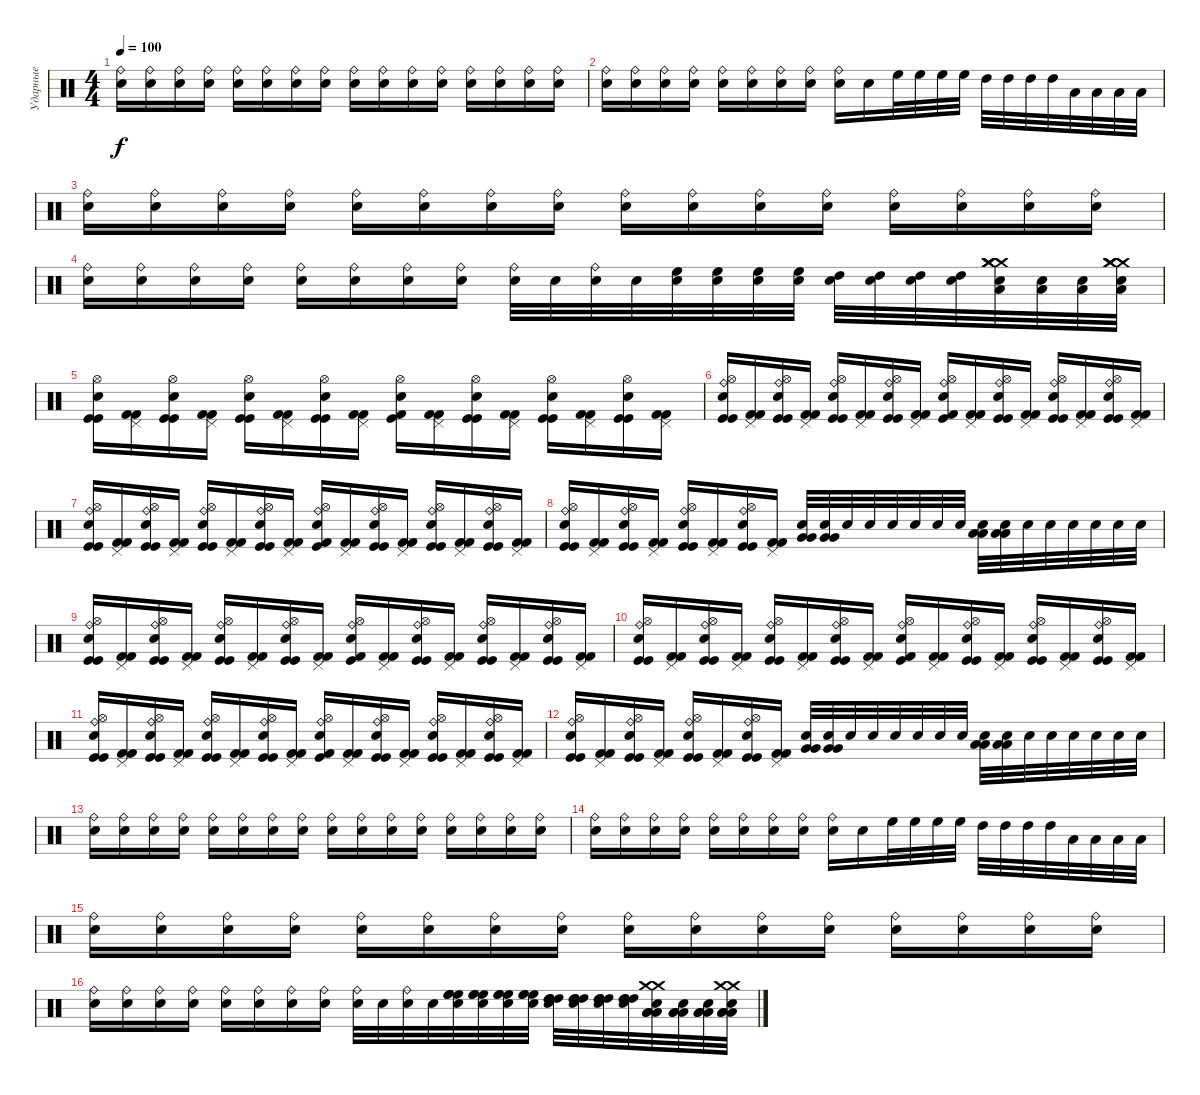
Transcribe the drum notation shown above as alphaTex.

\track ("Ударные" "Ударные") {instrument percussion}
\staff {score}
\articulation defaults
\ts (4 4)
\tempo 100
\clef neutral
\ks c
("Ride (bell)" "Electric Snare (hit)").16{dy f} ("Ride (bell)" "Electric Snare (hit)").16 ("Ride (bell)" "Electric Snare (hit)").16 ("Ride (bell)" "Electric Snare (hit)").16 ("Ride (bell)" "Electric Snare (hit)").16 ("Ride (bell)" "Electric Snare (hit)").16 ("Ride (bell)" "Electric Snare (hit)").16 ("Ride (bell)" "Electric Snare (hit)").16 ("Ride (bell)" "Electric Snare (hit)").16 ("Ride (bell)" "Electric Snare (hit)").16 ("Ride (bell)" "Electric Snare (hit)").16 ("Ride (bell)" "Electric Snare (hit)").16 ("Ride (bell)" "Electric Snare (hit)").16 ("Ride (bell)" "Electric Snare (hit)").16 ("Ride (bell)" "Electric Snare (hit)").16 ("Ride (bell)" "Electric Snare (hit)").16 |
("Ride (bell)" "Electric Snare (hit)").16 ("Ride (bell)" "Electric Snare (hit)").16 ("Ride (bell)" "Electric Snare (hit)").16 ("Ride (bell)" "Electric Snare (hit)").16 ("Ride (bell)" "Electric Snare (hit)").16 ("Ride (bell)" "Electric Snare (hit)").16 ("Ride (bell)" "Electric Snare (hit)").16 ("Ride (bell)" "Electric Snare (hit)").16 ("Ride (bell)" "Electric Snare (hit)").16 "Electric Snare (hit)".16 "High Floor Tom (hit)".32 "High Floor Tom (hit)".32 "High Floor Tom (hit)".32 "High Floor Tom (hit)".32 "High Tom (hit)".32 "High Tom (hit)".32 "High Tom (hit)".32 "High Tom (hit)".32 "Low Tom (hit)".32 "Low Tom (hit)".32 "Low Tom (hit)".32 "Low Tom (hit)".32 |
("Ride (bell)" "Electric Snare (hit)").16 ("Ride (bell)" "Electric Snare (hit)").16 ("Ride (bell)" "Electric Snare (hit)").16 ("Ride (bell)" "Electric Snare (hit)").16 ("Ride (bell)" "Electric Snare (hit)").16 ("Ride (bell)" "Electric Snare (hit)").16 ("Ride (bell)" "Electric Snare (hit)").16 ("Ride (bell)" "Electric Snare (hit)").16 ("Ride (bell)" "Electric Snare (hit)").16 ("Ride (bell)" "Electric Snare (hit)").16 ("Ride (bell)" "Electric Snare (hit)").16 ("Ride (bell)" "Electric Snare (hit)").16 ("Ride (bell)" "Electric Snare (hit)").16 ("Ride (bell)" "Electric Snare (hit)").16 ("Ride (bell)" "Electric Snare (hit)").16 ("Ride (bell)" "Electric Snare (hit)").16 |
("Ride (bell)" "Electric Snare (hit)").16 ("Ride (bell)" "Electric Snare (hit)").16 ("Ride (bell)" "Electric Snare (hit)").16 ("Ride (bell)" "Electric Snare (hit)").16 ("Ride (bell)" "Electric Snare (hit)").16 ("Ride (bell)" "Electric Snare (hit)").16 ("Ride (bell)" "Electric Snare (hit)").16 ("Ride (bell)" "Electric Snare (hit)").16 ("Ride (bell)" "Electric Snare (hit)").32 "Electric Snare (hit)".32 ("Ride (bell)" "Electric Snare (hit)").32 "Electric Snare (hit)".32 ("Electric Snare (hit)" "High Floor Tom (hit)").32 ("Electric Snare (hit)" "High Floor Tom (hit)").32 ("Electric Snare (hit)" "High Floor Tom (hit)").32 ("Electric Snare (hit)" "High Floor Tom (hit)").32 ("Electric Snare (hit)" "High Tom (hit)").32 ("Electric Snare (hit)" "High Tom (hit)").32 ("Electric Snare (hit)" "High Tom (hit)").32 ("Electric Snare (hit)" "High Tom (hit)").32 ("Crash medium (hit)" "Crash medium (hit)" "Electric Snare (hit)" "Low Tom (hit)" "Crash medium (hit)" "Crash medium (hit)").32 ("Electric Snare (hit)" "Low Tom (hit)").32 ("Electric Snare (hit)" "Low Tom (hit)").32 ("Crash medium (hit)" "Crash medium (hit)" "Electric Snare (hit)" "Low Tom (hit)" "Crash medium (hit)" "Crash medium (hit)").32 |
("Hi-Hat (open)" "Kick (hit)" "Kick (hit)" "Snare (hit) 2").16 ("Pedal Hi-Hat (hit)" "Kick (hit) 2" "Kick (hit) 2").16 ("Hi-Hat (open)" "Kick (hit)" "Kick (hit)" "Snare (hit) 2").16 ("Pedal Hi-Hat (hit)" "Kick (hit) 2" "Kick (hit) 2").16 ("Hi-Hat (open)" "Kick (hit)" "Kick (hit)" "Snare (hit) 2").16 ("Pedal Hi-Hat (hit)" "Kick (hit) 2" "Kick (hit) 2").16 ("Hi-Hat (open)" "Kick (hit)" "Kick (hit)" "Snare (hit) 2").16 ("Pedal Hi-Hat (hit)" "Kick (hit) 2" "Kick (hit) 2").16 ("Hi-Hat (open)" "Kick (hit)" "Kick (hit) 2" "Snare (hit) 2").16 ("Pedal Hi-Hat (hit)" "Kick (hit) 2" "Kick (hit) 2").16 ("Hi-Hat (open)" "Kick (hit)" "Kick (hit)" "Snare (hit) 2").16 ("Pedal Hi-Hat (hit)" "Kick (hit) 2" "Kick (hit) 2").16 ("Hi-Hat (open)" "Kick (hit)" "Kick (hit)" "Snare (hit) 2").16 ("Pedal Hi-Hat (hit)" "Kick (hit) 2" "Kick (hit) 2").16 ("Hi-Hat (open)" "Kick (hit)" "Kick (hit)" "Snare (hit) 2").16 ("Pedal Hi-Hat (hit)" "Kick (hit) 2" "Kick (hit) 2").16 |
("Ride (bell)" "Hi-Hat (open)" "Kick (hit)" "Kick (hit)" "Snare (hit) 2").16 ("Pedal Hi-Hat (hit)" "Kick (hit) 2" "Kick (hit) 2").16 ("Ride (bell)" "Hi-Hat (open)" "Kick (hit)" "Kick (hit)" "Snare (hit) 2").16 ("Pedal Hi-Hat (hit)" "Kick (hit) 2" "Kick (hit) 2").16 ("Ride (bell)" "Hi-Hat (open)" "Kick (hit)" "Kick (hit)" "Snare (hit) 2").16 ("Pedal Hi-Hat (hit)" "Kick (hit) 2" "Kick (hit) 2").16 ("Ride (bell)" "Hi-Hat (open)" "Kick (hit)" "Kick (hit)" "Snare (hit) 2").16 ("Pedal Hi-Hat (hit)" "Kick (hit) 2" "Kick (hit) 2").16 ("Ride (bell)" "Hi-Hat (open)" "Kick (hit)" "Kick (hit) 2" "Snare (hit) 2").16 ("Pedal Hi-Hat (hit)" "Kick (hit) 2" "Kick (hit) 2").16 ("Ride (bell)" "Hi-Hat (open)" "Kick (hit)" "Kick (hit)" "Snare (hit) 2").16 ("Pedal Hi-Hat (hit)" "Kick (hit) 2" "Kick (hit) 2").16 ("Ride (bell)" "Hi-Hat (open)" "Kick (hit)" "Kick (hit)" "Snare (hit) 2").16 ("Pedal Hi-Hat (hit)" "Kick (hit) 2" "Kick (hit) 2").16 ("Ride (bell)" "Hi-Hat (open)" "Kick (hit)" "Kick (hit)" "Snare (hit) 2").16 ("Pedal Hi-Hat (hit)" "Kick (hit) 2" "Kick (hit) 2").16 |
("Ride (bell)" "Hi-Hat (open)" "Kick (hit)" "Kick (hit)" "Snare (hit) 2").16 ("Pedal Hi-Hat (hit)" "Kick (hit) 2" "Kick (hit) 2").16 ("Ride (bell)" "Hi-Hat (open)" "Kick (hit)" "Kick (hit)" "Snare (hit) 2").16 ("Pedal Hi-Hat (hit)" "Kick (hit) 2" "Kick (hit) 2").16 ("Ride (bell)" "Hi-Hat (open)" "Kick (hit)" "Kick (hit)" "Snare (hit) 2").16 ("Pedal Hi-Hat (hit)" "Kick (hit) 2" "Kick (hit) 2").16 ("Ride (bell)" "Hi-Hat (open)" "Kick (hit)" "Kick (hit)" "Snare (hit) 2").16 ("Pedal Hi-Hat (hit)" "Kick (hit) 2" "Kick (hit) 2").16 ("Ride (bell)" "Hi-Hat (open)" "Kick (hit)" "Kick (hit) 2" "Snare (hit) 2").16 ("Pedal Hi-Hat (hit)" "Kick (hit) 2" "Kick (hit) 2").16 ("Ride (bell)" "Hi-Hat (open)" "Kick (hit)" "Kick (hit)" "Snare (hit) 2").16 ("Pedal Hi-Hat (hit)" "Kick (hit) 2" "Kick (hit) 2").16 ("Ride (bell)" "Hi-Hat (open)" "Kick (hit)" "Kick (hit)" "Snare (hit) 2").16 ("Pedal Hi-Hat (hit)" "Kick (hit) 2" "Kick (hit) 2").16 ("Ride (bell)" "Hi-Hat (open)" "Kick (hit)" "Kick (hit)" "Snare (hit) 2").16 ("Pedal Hi-Hat (hit)" "Kick (hit) 2" "Kick (hit) 2").16 |
("Ride (bell)" "Hi-Hat (open)" "Kick (hit)" "Kick (hit)" "Snare (hit) 2").16 ("Pedal Hi-Hat (hit)" "Kick (hit) 2" "Kick (hit) 2").16 ("Ride (bell)" "Hi-Hat (open)" "Kick (hit)" "Kick (hit)" "Snare (hit) 2").16 ("Pedal Hi-Hat (hit)" "Kick (hit) 2" "Kick (hit) 2").16 ("Ride (bell)" "Hi-Hat (open)" "Kick (hit)" "Kick (hit)" "Snare (hit) 2").16 ("Pedal Hi-Hat (hit)" "Kick (hit) 2" "Kick (hit) 2").16 ("Ride (bell)" "Hi-Hat (open)" "Kick (hit)" "Kick (hit)" "Snare (hit) 2").16 ("Pedal Hi-Hat (hit)" "Kick (hit) 2" "Kick (hit) 2").16 ("Electric Snare (hit)" "Very Low Tom (hit)" "Very Low Tom (hit)").32 ("Electric Snare (hit)" "Very Low Tom (hit)" "Very Low Tom (hit)").32 "Electric Snare (hit)".32 "Electric Snare (hit)".32 "Electric Snare (hit)".32 "Electric Snare (hit)".32 "Electric Snare (hit)".32 "Electric Snare (hit)".32 ("Electric Snare (hit)" "Low Floor Tom (hit)" "Low Floor Tom (hit)").32 ("Electric Snare (hit)" "Low Floor Tom (hit)" "Low Floor Tom (hit)").32 "Electric Snare (hit)".32 "Electric Snare (hit)".32 "Electric Snare (hit)".32 "Electric Snare (hit)".32 "Electric Snare (hit)".32 "Electric Snare (hit)".32 |
("Ride (bell)" "Hi-Hat (open)" "Kick (hit)" "Kick (hit)" "Snare (hit) 2").16 ("Pedal Hi-Hat (hit)" "Kick (hit) 2" "Kick (hit) 2").16 ("Ride (bell)" "Hi-Hat (open)" "Kick (hit)" "Kick (hit)" "Snare (hit) 2").16 ("Pedal Hi-Hat (hit)" "Kick (hit) 2" "Kick (hit) 2").16 ("Ride (bell)" "Hi-Hat (open)" "Kick (hit)" "Kick (hit)" "Snare (hit) 2").16 ("Pedal Hi-Hat (hit)" "Kick (hit) 2" "Kick (hit) 2").16 ("Ride (bell)" "Hi-Hat (open)" "Kick (hit)" "Kick (hit)" "Snare (hit) 2").16 ("Pedal Hi-Hat (hit)" "Kick (hit) 2" "Kick (hit) 2").16 ("Ride (bell)" "Hi-Hat (open)" "Kick (hit)" "Kick (hit) 2" "Snare (hit) 2").16 ("Pedal Hi-Hat (hit)" "Kick (hit) 2" "Kick (hit) 2").16 ("Ride (bell)" "Hi-Hat (open)" "Kick (hit)" "Kick (hit)" "Snare (hit) 2").16 ("Pedal Hi-Hat (hit)" "Kick (hit) 2" "Kick (hit) 2").16 ("Ride (bell)" "Hi-Hat (open)" "Kick (hit)" "Kick (hit)" "Snare (hit) 2").16 ("Pedal Hi-Hat (hit)" "Kick (hit) 2" "Kick (hit) 2").16 ("Ride (bell)" "Hi-Hat (open)" "Kick (hit)" "Kick (hit)" "Snare (hit) 2").16 ("Pedal Hi-Hat (hit)" "Kick (hit) 2" "Kick (hit) 2").16 |
("Ride (bell)" "Hi-Hat (open)" "Kick (hit)" "Kick (hit)" "Snare (hit) 2").16 ("Pedal Hi-Hat (hit)" "Kick (hit) 2" "Kick (hit) 2").16 ("Ride (bell)" "Hi-Hat (open)" "Kick (hit)" "Kick (hit)" "Snare (hit) 2").16 ("Pedal Hi-Hat (hit)" "Kick (hit) 2" "Kick (hit) 2").16 ("Ride (bell)" "Hi-Hat (open)" "Kick (hit)" "Kick (hit)" "Snare (hit) 2").16 ("Pedal Hi-Hat (hit)" "Kick (hit) 2" "Kick (hit) 2").16 ("Ride (bell)" "Hi-Hat (open)" "Kick (hit)" "Kick (hit)" "Snare (hit) 2").16 ("Pedal Hi-Hat (hit)" "Kick (hit) 2" "Kick (hit) 2").16 ("Ride (bell)" "Hi-Hat (open)" "Kick (hit)" "Kick (hit) 2" "Snare (hit) 2").16 ("Pedal Hi-Hat (hit)" "Kick (hit) 2" "Kick (hit) 2").16 ("Ride (bell)" "Hi-Hat (open)" "Kick (hit)" "Kick (hit)" "Snare (hit) 2").16 ("Pedal Hi-Hat (hit)" "Kick (hit) 2" "Kick (hit) 2").16 ("Ride (bell)" "Hi-Hat (open)" "Kick (hit)" "Kick (hit)" "Snare (hit) 2").16 ("Pedal Hi-Hat (hit)" "Kick (hit) 2" "Kick (hit) 2").16 ("Ride (bell)" "Hi-Hat (open)" "Kick (hit)" "Kick (hit)" "Snare (hit) 2").16 ("Pedal Hi-Hat (hit)" "Kick (hit) 2" "Kick (hit) 2").16 |
("Ride (bell)" "Hi-Hat (open)" "Kick (hit)" "Kick (hit)" "Snare (hit) 2").16 ("Pedal Hi-Hat (hit)" "Kick (hit) 2" "Kick (hit) 2").16 ("Ride (bell)" "Hi-Hat (open)" "Kick (hit)" "Kick (hit)" "Snare (hit) 2").16 ("Pedal Hi-Hat (hit)" "Kick (hit) 2" "Kick (hit) 2").16 ("Ride (bell)" "Hi-Hat (open)" "Kick (hit)" "Kick (hit)" "Snare (hit) 2").16 ("Pedal Hi-Hat (hit)" "Kick (hit) 2" "Kick (hit) 2").16 ("Ride (bell)" "Hi-Hat (open)" "Kick (hit)" "Kick (hit)" "Snare (hit) 2").16 ("Pedal Hi-Hat (hit)" "Kick (hit) 2" "Kick (hit) 2").16 ("Ride (bell)" "Hi-Hat (open)" "Kick (hit)" "Kick (hit) 2" "Snare (hit) 2").16 ("Pedal Hi-Hat (hit)" "Kick (hit) 2" "Kick (hit) 2").16 ("Ride (bell)" "Hi-Hat (open)" "Kick (hit)" "Kick (hit)" "Snare (hit) 2").16 ("Pedal Hi-Hat (hit)" "Kick (hit) 2" "Kick (hit) 2").16 ("Ride (bell)" "Hi-Hat (open)" "Kick (hit)" "Kick (hit)" "Snare (hit) 2").16 ("Pedal Hi-Hat (hit)" "Kick (hit) 2" "Kick (hit) 2").16 ("Ride (bell)" "Hi-Hat (open)" "Kick (hit)" "Kick (hit)" "Snare (hit) 2").16 ("Pedal Hi-Hat (hit)" "Kick (hit) 2" "Kick (hit) 2").16 |
("Ride (bell)" "Hi-Hat (open)" "Kick (hit)" "Kick (hit)" "Snare (hit) 2").16 ("Pedal Hi-Hat (hit)" "Kick (hit) 2" "Kick (hit) 2").16 ("Ride (bell)" "Hi-Hat (open)" "Kick (hit)" "Kick (hit)" "Snare (hit) 2").16 ("Pedal Hi-Hat (hit)" "Kick (hit) 2" "Kick (hit) 2").16 ("Ride (bell)" "Hi-Hat (open)" "Kick (hit)" "Kick (hit)" "Snare (hit) 2").16 ("Pedal Hi-Hat (hit)" "Kick (hit) 2" "Kick (hit) 2").16 ("Ride (bell)" "Hi-Hat (open)" "Kick (hit)" "Kick (hit)" "Snare (hit) 2").16 ("Pedal Hi-Hat (hit)" "Kick (hit) 2" "Kick (hit) 2").16 ("Electric Snare (hit)" "Very Low Tom (hit)" "Very Low Tom (hit)").32 ("Electric Snare (hit)" "Very Low Tom (hit)" "Very Low Tom (hit)").32 "Electric Snare (hit)".32 "Electric Snare (hit)".32 "Electric Snare (hit)".32 "Electric Snare (hit)".32 "Electric Snare (hit)".32 "Electric Snare (hit)".32 ("Electric Snare (hit)" "Low Floor Tom (hit)" "Low Floor Tom (hit)").32 ("Electric Snare (hit)" "Low Floor Tom (hit)" "Low Floor Tom (hit)").32 "Electric Snare (hit)".32 "Electric Snare (hit)".32 "Electric Snare (hit)".32 "Electric Snare (hit)".32 "Electric Snare (hit)".32 "Electric Snare (hit)".32 |
("Ride (bell)" "Electric Snare (hit)").16 ("Ride (bell)" "Electric Snare (hit)").16 ("Ride (bell)" "Electric Snare (hit)").16 ("Ride (bell)" "Electric Snare (hit)").16 ("Ride (bell)" "Electric Snare (hit)").16 ("Ride (bell)" "Electric Snare (hit)").16 ("Ride (bell)" "Electric Snare (hit)").16 ("Ride (bell)" "Electric Snare (hit)").16 ("Ride (bell)" "Electric Snare (hit)").16 ("Ride (bell)" "Electric Snare (hit)").16 ("Ride (bell)" "Electric Snare (hit)").16 ("Ride (bell)" "Electric Snare (hit)").16 ("Ride (bell)" "Electric Snare (hit)").16 ("Ride (bell)" "Electric Snare (hit)").16 ("Ride (bell)" "Electric Snare (hit)").16 ("Ride (bell)" "Electric Snare (hit)").16 |
("Ride (bell)" "Electric Snare (hit)").16 ("Ride (bell)" "Electric Snare (hit)").16 ("Ride (bell)" "Electric Snare (hit)").16 ("Ride (bell)" "Electric Snare (hit)").16 ("Ride (bell)" "Electric Snare (hit)").16 ("Ride (bell)" "Electric Snare (hit)").16 ("Ride (bell)" "Electric Snare (hit)").16 ("Ride (bell)" "Electric Snare (hit)").16 ("Ride (bell)" "Electric Snare (hit)").16 "Electric Snare (hit)".16 "High Floor Tom (hit)".32 "High Floor Tom (hit)".32 "High Floor Tom (hit)".32 "High Floor Tom (hit)".32 "High Tom (hit)".32 "High Tom (hit)".32 "High Tom (hit)".32 "High Tom (hit)".32 "Low Tom (hit)".32 "Low Tom (hit)".32 "Low Tom (hit)".32 "Low Tom (hit)".32 |
("Ride (bell)" "Electric Snare (hit)").16 ("Ride (bell)" "Electric Snare (hit)").16 ("Ride (bell)" "Electric Snare (hit)").16 ("Ride (bell)" "Electric Snare (hit)").16 ("Ride (bell)" "Electric Snare (hit)").16 ("Ride (bell)" "Electric Snare (hit)").16 ("Ride (bell)" "Electric Snare (hit)").16 ("Ride (bell)" "Electric Snare (hit)").16 ("Ride (bell)" "Electric Snare (hit)").16 ("Ride (bell)" "Electric Snare (hit)").16 ("Ride (bell)" "Electric Snare (hit)").16 ("Ride (bell)" "Electric Snare (hit)").16 ("Ride (bell)" "Electric Snare (hit)").16 ("Ride (bell)" "Electric Snare (hit)").16 ("Ride (bell)" "Electric Snare (hit)").16 ("Ride (bell)" "Electric Snare (hit)").16 |
("Ride (bell)" "Electric Snare (hit)").16 ("Ride (bell)" "Electric Snare (hit)").16 ("Ride (bell)" "Electric Snare (hit)").16 ("Ride (bell)" "Electric Snare (hit)").16 ("Ride (bell)" "Electric Snare (hit)").16 ("Ride (bell)" "Electric Snare (hit)").16 ("Ride (bell)" "Electric Snare (hit)").16 ("Ride (bell)" "Electric Snare (hit)").16 ("Ride (bell)" "Electric Snare (hit)").32 "Electric Snare (hit)".32 ("Ride (bell)" "Electric Snare (hit)").32 "Electric Snare (hit)".32 ("Electric Snare (hit)" "High Floor Tom (hit)" "High Floor Tom (hit)" "High Floor Tom (hit)").32 ("Electric Snare (hit)" "High Floor Tom (hit)" "High Floor Tom (hit)" "High Floor Tom (hit)").32 ("Electric Snare (hit)" "High Floor Tom (hit)" "High Floor Tom (hit)" "High Floor Tom (hit)").32 ("Electric Snare (hit)" "High Floor Tom (hit)" "High Floor Tom (hit)" "High Floor Tom (hit)").32 ("Electric Snare (hit)" "High Tom (hit)" "High Tom (hit)" "High Tom (hit)").32 ("Electric Snare (hit)" "High Tom (hit)" "High Tom (hit)" "High Tom (hit)").32 ("Electric Snare (hit)" "High Tom (hit)" "High Tom (hit)" "High Tom (hit)").32 ("Electric Snare (hit)" "High Tom (hit)" "High Tom (hit)" "High Tom (hit)").32 ("Crash medium (hit)" "Crash medium (hit)" "Electric Snare (hit)" "Low Tom (hit)" "Low Tom (hit)" "Low Tom (hit)").32 ("Electric Snare (hit)" "Low Tom (hit)" "Low Tom (hit)" "Low Tom (hit)").32 ("Electric Snare (hit)" "Low Tom (hit)" "Low Tom (hit)" "Low Tom (hit)").32 ("Crash medium (hit)" "Crash medium (hit)" "Electric Snare (hit)" "Low Tom (hit)" "Low Tom (hit)" "Low Tom (hit)").32
